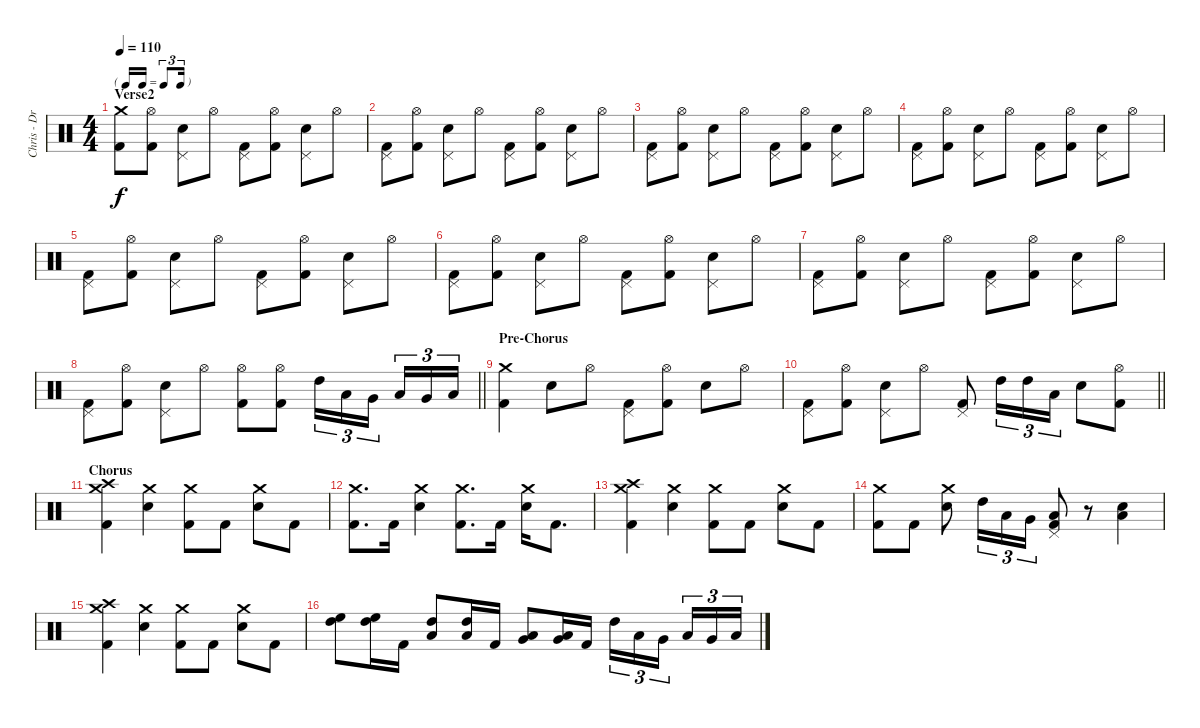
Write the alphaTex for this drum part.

\track ("Chris - Drums" "Chris - Dr") {instrument percussion}
\staff {score}
\articulation defaults
\ts (4 4)
\tf triplet16th
\section ("" "Verse2")
\tempo 110
\clef neutral
\ks c
("Crash medium (hit)" "Kick (hit) 2").8{dy f} ("Hi-Hat (open)" "Kick (hit) 2").8 ("Pedal Hi-Hat (hit)" "Electric Snare (hit)").8 "Hi-Hat (open)".8 ("Pedal Hi-Hat (hit)" "Kick (hit) 2").8 ("Hi-Hat (open)" "Kick (hit) 2").8 ("Pedal Hi-Hat (hit)" "Electric Snare (hit)").8 "Hi-Hat (open)".8 |
("Pedal Hi-Hat (hit)" "Kick (hit) 2").8 ("Hi-Hat (open)" "Kick (hit) 2").8 ("Pedal Hi-Hat (hit)" "Electric Snare (hit)").8 "Hi-Hat (open)".8 ("Pedal Hi-Hat (hit)" "Kick (hit) 2").8 ("Hi-Hat (open)" "Kick (hit) 2").8 ("Pedal Hi-Hat (hit)" "Electric Snare (hit)").8 "Hi-Hat (open)".8 |
("Pedal Hi-Hat (hit)" "Kick (hit) 2").8 ("Hi-Hat (open)" "Kick (hit) 2").8 ("Pedal Hi-Hat (hit)" "Electric Snare (hit)").8 "Hi-Hat (open)".8 ("Pedal Hi-Hat (hit)" "Kick (hit) 2").8 ("Hi-Hat (open)" "Kick (hit) 2").8 ("Pedal Hi-Hat (hit)" "Electric Snare (hit)").8 "Hi-Hat (open)".8 |
("Pedal Hi-Hat (hit)" "Kick (hit) 2").8 ("Hi-Hat (open)" "Kick (hit) 2").8 ("Pedal Hi-Hat (hit)" "Electric Snare (hit)").8 "Hi-Hat (open)".8 ("Pedal Hi-Hat (hit)" "Kick (hit) 2").8 ("Hi-Hat (open)" "Kick (hit) 2").8 ("Pedal Hi-Hat (hit)" "Electric Snare (hit)").8 "Hi-Hat (open)".8 |
("Pedal Hi-Hat (hit)" "Kick (hit) 2").8 ("Hi-Hat (open)" "Kick (hit) 2").8 ("Pedal Hi-Hat (hit)" "Electric Snare (hit)").8 "Hi-Hat (open)".8 ("Pedal Hi-Hat (hit)" "Kick (hit) 2").8 ("Hi-Hat (open)" "Kick (hit) 2").8 ("Pedal Hi-Hat (hit)" "Electric Snare (hit)").8 "Hi-Hat (open)".8 |
("Pedal Hi-Hat (hit)" "Kick (hit) 2").8 ("Hi-Hat (open)" "Kick (hit) 2").8 ("Pedal Hi-Hat (hit)" "Electric Snare (hit)").8 "Hi-Hat (open)".8 ("Pedal Hi-Hat (hit)" "Kick (hit) 2").8 ("Hi-Hat (open)" "Kick (hit) 2").8 ("Pedal Hi-Hat (hit)" "Electric Snare (hit)").8 "Hi-Hat (open)".8 |
("Pedal Hi-Hat (hit)" "Kick (hit) 2").8 ("Hi-Hat (open)" "Kick (hit) 2").8 ("Pedal Hi-Hat (hit)" "Electric Snare (hit)").8 "Hi-Hat (open)".8 ("Pedal Hi-Hat (hit)" "Kick (hit) 2").8 ("Hi-Hat (open)" "Kick (hit) 2").8 ("Pedal Hi-Hat (hit)" "Electric Snare (hit)").8 "Hi-Hat (open)".8 |
\barLineRight lightlight
("Pedal Hi-Hat (hit)" "Kick (hit) 2").8 ("Hi-Hat (open)" "Kick (hit) 2").8 ("Pedal Hi-Hat (hit)" "Electric Snare (hit)").8 "Hi-Hat (open)".8 ("Hi-Hat (open)" "Kick (hit) 2").8 ("Hi-Hat (open)" "Kick (hit) 2").8 "High Tom (hit)".16{tu (3 2)} "Low Tom (hit)".16{tu (3 2)} "Very Low Tom (hit)".16{tu (3 2) beam splitsecondary} "Low Tom (hit)".16{tu (3 2)} "Very Low Tom (hit)".16{tu (3 2)} "Low Floor Tom (hit)".16{tu (3 2)} |
\section ("" "Pre-Chorus")
("Crash medium (hit)" "Kick (hit) 2").4 "Electric Snare (hit)".8 "Hi-Hat (open)".8 ("Pedal Hi-Hat (hit)" "Kick (hit) 2").8 ("Hi-Hat (open)" "Kick (hit) 2").8 "Electric Snare (hit)".8 "Hi-Hat (open)".8 |
\barLineRight lightlight
("Pedal Hi-Hat (hit)" "Kick (hit) 2").8 ("Hi-Hat (open)" "Kick (hit) 2").8 ("Pedal Hi-Hat (hit)" "Electric Snare (hit)").8 "Hi-Hat (open)".8 ("Pedal Hi-Hat (hit)" "Kick (hit) 2").8 "High Tom (hit)".16{tu (3 2)} "High Tom (hit)".16{tu (3 2)} "Low Tom (hit)".16{tu (3 2)} "Electric Snare (hit)".8 ("Hi-Hat (open)" "Kick (hit) 2").8 |
\section ("" "Chorus")
("Crash medium (hit)" "Crash high (hit)" "Kick (hit) 2").4 ("Crash medium (hit)" "Electric Snare (hit)").4 ("Crash medium (hit)" "Kick (hit) 2").8 "Kick (hit) 2".8 ("Crash medium (hit)" "Electric Snare (hit)").8 "Kick (hit) 2".8 |
("Crash medium (hit)" "Kick (hit) 2").8{d} "Kick (hit) 2".16 ("Crash medium (hit)" "Electric Snare (hit)").4 ("Crash medium (hit)" "Kick (hit) 2").8{d} "Kick (hit) 2".16 ("Crash medium (hit)" "Electric Snare (hit)").16 "Kick (hit) 2".8{d} |
("Crash medium (hit)" "Crash high (hit)" "Kick (hit) 2").4 ("Crash medium (hit)" "Electric Snare (hit)").4 ("Crash medium (hit)" "Kick (hit) 2").8 "Kick (hit) 2".8 ("Crash medium (hit)" "Electric Snare (hit)").8 "Kick (hit) 2".8 |
("Crash medium (hit)" "Kick (hit) 2").8 "Kick (hit) 2".8 ("Crash medium (hit)" "Electric Snare (hit)").8 "High Tom (hit)".16{tu (3 2)} "Low Tom (hit)".16{tu (3 2)} "Very Low Tom (hit)".16{tu (3 2)} ("Pedal Hi-Hat (hit)" "Low Floor Tom (hit)" "Kick (hit) 2").8 r.8 ("Low Floor Tom (hit)" "Electric Snare (hit)").4 |
("Crash medium (hit)" "Crash high (hit)" "Kick (hit) 2").4 ("Crash medium (hit)" "Electric Snare (hit)").4 ("Crash medium (hit)" "Kick (hit) 2").8 "Kick (hit) 2".8 ("Crash medium (hit)" "Electric Snare (hit)").8 "Kick (hit) 2".8 |
("High Floor Tom (hit)" "High Tom (hit)").8 ("High Floor Tom (hit)" "High Tom (hit)").16 "Kick (hit) 2".16 ("High Tom (hit)" "Low Tom (hit)").8 ("High Tom (hit)" "Low Tom (hit)").16 "Kick (hit) 2".16 ("Low Tom (hit)" "Very Low Tom (hit)").8 ("Low Tom (hit)" "Very Low Tom (hit)").16 "Kick (hit) 2".16 "High Tom (hit)".16{tu (3 2)} "Low Tom (hit)".16{tu (3 2)} "Very Low Tom (hit)".16{tu (3 2) beam splitsecondary} "Low Tom (hit)".16{tu (3 2)} "Very Low Tom (hit)".16{tu (3 2)} "Low Floor Tom (hit)".16{tu (3 2)}
